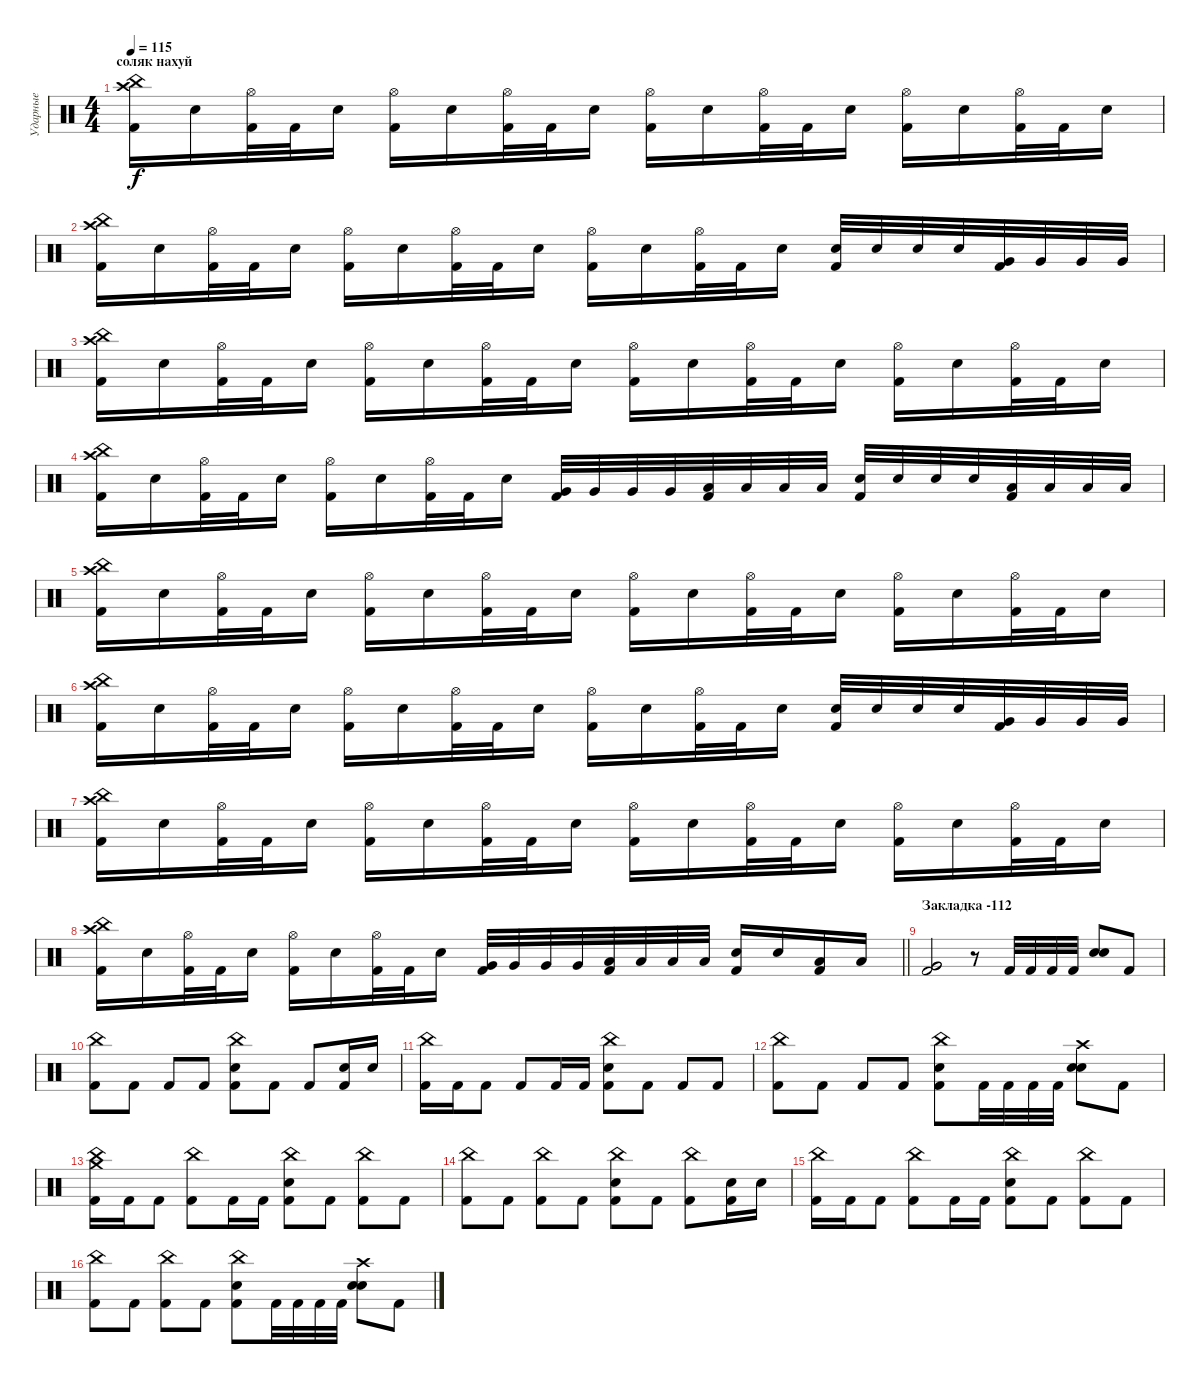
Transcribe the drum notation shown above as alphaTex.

\track ("Ударные" "Ударные") {instrument percussion}
\staff {score}
\articulation defaults
\ts (4 4)
\section ("" "соляк нахуй")
\tempo 115
\clef neutral
\ks c
("China (hit)" "Crash high (hit)" "Kick (hit) 2").16{dy f} "Electric Snare (hit)".16 ("Hi-Hat (open)" "Kick (hit) 2").32 "Kick (hit) 2".32 "Electric Snare (hit)".16 ("Hi-Hat (open)" "Kick (hit) 2").16 "Electric Snare (hit)".16 ("Hi-Hat (open)" "Kick (hit) 2").32 "Kick (hit) 2".32 "Electric Snare (hit)".16 ("Hi-Hat (open)" "Kick (hit) 2").16 "Electric Snare (hit)".16 ("Hi-Hat (open)" "Kick (hit) 2").32 "Kick (hit) 2".32 "Electric Snare (hit)".16 ("Hi-Hat (open)" "Kick (hit) 2").16 "Electric Snare (hit)".16 ("Hi-Hat (open)" "Kick (hit) 2").32 "Kick (hit) 2".32 "Electric Snare (hit)".16 |
("China (hit)" "Crash high (hit)" "Kick (hit) 2").16 "Electric Snare (hit)".16 ("Hi-Hat (open)" "Kick (hit) 2").32 "Kick (hit) 2".32 "Electric Snare (hit)".16 ("Hi-Hat (open)" "Kick (hit) 2").16 "Electric Snare (hit)".16 ("Hi-Hat (open)" "Kick (hit) 2").32 "Kick (hit) 2".32 "Electric Snare (hit)".16 ("Hi-Hat (open)" "Kick (hit) 2").16 "Electric Snare (hit)".16 ("Hi-Hat (open)" "Kick (hit) 2").32 "Kick (hit) 2".32 "Electric Snare (hit)".16 ("Electric Snare (hit)" "Kick (hit) 2").32 "Electric Snare (hit)".32 "Electric Snare (hit)".32 "Electric Snare (hit)".32 ("Very Low Tom (hit)" "Kick (hit) 2").32 "Very Low Tom (hit)".32 "Very Low Tom (hit)".32 "Very Low Tom (hit)".32 |
("China (hit)" "Crash high (hit)" "Kick (hit) 2").16 "Electric Snare (hit)".16 ("Hi-Hat (open)" "Kick (hit) 2").32 "Kick (hit) 2".32 "Electric Snare (hit)".16 ("Hi-Hat (open)" "Kick (hit) 2").16 "Electric Snare (hit)".16 ("Hi-Hat (open)" "Kick (hit) 2").32 "Kick (hit) 2".32 "Electric Snare (hit)".16 ("Hi-Hat (open)" "Kick (hit) 2").16 "Electric Snare (hit)".16 ("Hi-Hat (open)" "Kick (hit) 2").32 "Kick (hit) 2".32 "Electric Snare (hit)".16 ("Hi-Hat (open)" "Kick (hit) 2").16 "Electric Snare (hit)".16 ("Hi-Hat (open)" "Kick (hit) 2").32 "Kick (hit) 2".32 "Electric Snare (hit)".16 |
("China (hit)" "Crash high (hit)" "Kick (hit) 2").16 "Electric Snare (hit)".16 ("Hi-Hat (open)" "Kick (hit) 2").32 "Kick (hit) 2".32 "Electric Snare (hit)".16 ("Hi-Hat (open)" "Kick (hit) 2").16 "Electric Snare (hit)".16 ("Hi-Hat (open)" "Kick (hit) 2").32 "Kick (hit) 2".32 "Electric Snare (hit)".16 ("Very Low Tom (hit)" "Kick (hit) 2").32 "Very Low Tom (hit)".32 "Very Low Tom (hit)".32 "Very Low Tom (hit)".32 ("Low Tom (hit)" "Kick (hit) 2").32 "Low Tom (hit)".32 "Low Tom (hit)".32 "Low Tom (hit)".32 ("Electric Snare (hit)" "Kick (hit) 2").32 "Electric Snare (hit)".32 "Electric Snare (hit)".32 "Electric Snare (hit)".32 ("Low Tom (hit)" "Kick (hit) 2").32 "Low Tom (hit)".32 "Low Tom (hit)".32 "Low Tom (hit)".32 |
("China (hit)" "Crash high (hit)" "Kick (hit) 2").16 "Electric Snare (hit)".16 ("Hi-Hat (open)" "Kick (hit) 2").32 "Kick (hit) 2".32 "Electric Snare (hit)".16 ("Hi-Hat (open)" "Kick (hit) 2").16 "Electric Snare (hit)".16 ("Hi-Hat (open)" "Kick (hit) 2").32 "Kick (hit) 2".32 "Electric Snare (hit)".16 ("Hi-Hat (open)" "Kick (hit) 2").16 "Electric Snare (hit)".16 ("Hi-Hat (open)" "Kick (hit) 2").32 "Kick (hit) 2".32 "Electric Snare (hit)".16 ("Hi-Hat (open)" "Kick (hit) 2").16 "Electric Snare (hit)".16 ("Hi-Hat (open)" "Kick (hit) 2").32 "Kick (hit) 2".32 "Electric Snare (hit)".16 |
("China (hit)" "Crash high (hit)" "Kick (hit) 2").16 "Electric Snare (hit)".16 ("Hi-Hat (open)" "Kick (hit) 2").32 "Kick (hit) 2".32 "Electric Snare (hit)".16 ("Hi-Hat (open)" "Kick (hit) 2").16 "Electric Snare (hit)".16 ("Hi-Hat (open)" "Kick (hit) 2").32 "Kick (hit) 2".32 "Electric Snare (hit)".16 ("Hi-Hat (open)" "Kick (hit) 2").16 "Electric Snare (hit)".16 ("Hi-Hat (open)" "Kick (hit) 2").32 "Kick (hit) 2".32 "Electric Snare (hit)".16 ("Electric Snare (hit)" "Kick (hit) 2").32 "Electric Snare (hit)".32 "Electric Snare (hit)".32 "Electric Snare (hit)".32 ("Very Low Tom (hit)" "Kick (hit) 2").32 "Very Low Tom (hit)".32 "Very Low Tom (hit)".32 "Very Low Tom (hit)".32 |
("China (hit)" "Crash high (hit)" "Kick (hit) 2").16 "Electric Snare (hit)".16 ("Hi-Hat (open)" "Kick (hit) 2").32 "Kick (hit) 2".32 "Electric Snare (hit)".16 ("Hi-Hat (open)" "Kick (hit) 2").16 "Electric Snare (hit)".16 ("Hi-Hat (open)" "Kick (hit) 2").32 "Kick (hit) 2".32 "Electric Snare (hit)".16 ("Hi-Hat (open)" "Kick (hit) 2").16 "Electric Snare (hit)".16 ("Hi-Hat (open)" "Kick (hit) 2").32 "Kick (hit) 2".32 "Electric Snare (hit)".16 ("Hi-Hat (open)" "Kick (hit) 2").16 "Electric Snare (hit)".16 ("Hi-Hat (open)" "Kick (hit) 2").32 "Kick (hit) 2".32 "Electric Snare (hit)".16 |
\barLineRight lightlight
("China (hit)" "Crash high (hit)" "Kick (hit) 2").16 "Electric Snare (hit)".16 ("Hi-Hat (open)" "Kick (hit) 2").32 "Kick (hit) 2".32 "Electric Snare (hit)".16 ("Hi-Hat (open)" "Kick (hit) 2").16 "Electric Snare (hit)".16 ("Hi-Hat (open)" "Kick (hit) 2").32 "Kick (hit) 2".32 "Electric Snare (hit)".16 ("Very Low Tom (hit)" "Kick (hit) 2").32 "Very Low Tom (hit)".32 "Very Low Tom (hit)".32 "Very Low Tom (hit)".32 ("Low Tom (hit)" "Kick (hit) 2").32 "Low Tom (hit)".32 "Low Tom (hit)".32 "Low Tom (hit)".32 ("Electric Snare (hit)" "Kick (hit) 2").16 "Electric Snare (hit)".16 ("Low Tom (hit)" "Kick (hit) 2").16 "Low Tom (hit)".16 |
\section ("" "Закладка -112")
("Very Low Tom (hit)" "Very Low Tom (hit)" "Kick (hit) 2").2 r.8 "Kick (hit) 2".32 "Kick (hit) 2".32 "Kick (hit) 2".32 "Kick (hit) 2".32 ("Electric Snare (hit)" "Electric Snare (hit)").8 "Kick (hit) 2".8 |
("China (hit)" "Kick (hit) 2").8 "Kick (hit) 2".8 "Kick (hit) 2".8 "Kick (hit) 2".8 ("China (hit)" "Electric Snare (hit)" "Kick (hit) 2").8 "Kick (hit) 2".8 "Kick (hit) 2".8 ("Electric Snare (hit)" "Kick (hit) 2").16 "Electric Snare (hit)".16 |
("China (hit)" "Kick (hit) 2").16 "Kick (hit) 2".16 "Kick (hit) 2".8 "Kick (hit) 2".8 "Kick (hit) 2".16 "Kick (hit) 2".16 ("China (hit)" "Electric Snare (hit)" "Kick (hit) 2").8 "Kick (hit) 2".8 "Kick (hit) 2".8 "Kick (hit) 2".8 |
("China (hit)" "Kick (hit) 2").8 "Kick (hit) 2".8 "Kick (hit) 2".8 "Kick (hit) 2".8 ("China (hit)" "Electric Snare (hit)" "Kick (hit) 2").8 "Kick (hit) 2".32 "Kick (hit) 2".32 "Kick (hit) 2".32 "Kick (hit) 2".32 ("Crash high (hit)" "Electric Snare (hit)" "Electric Snare (hit)").8 "Kick (hit) 2".8 |
("China (hit)" "Crash medium (hit)" "Kick (hit) 2").16 "Kick (hit) 2".16 "Kick (hit) 2".8 ("China (hit)" "Kick (hit) 2").8 "Kick (hit) 2".16 "Kick (hit) 2".16 ("China (hit)" "Electric Snare (hit)" "Kick (hit) 2").8 "Kick (hit) 2".8 ("China (hit)" "Kick (hit) 2").8 "Kick (hit) 2".8 |
("China (hit)" "Kick (hit) 2").8 "Kick (hit) 2".8 ("China (hit)" "Kick (hit) 2").8 "Kick (hit) 2".8 ("China (hit)" "Electric Snare (hit)" "Kick (hit) 2").8 "Kick (hit) 2".8 ("China (hit)" "Kick (hit) 2").8 ("Electric Snare (hit)" "Kick (hit) 2").16 "Electric Snare (hit)".16 |
("China (hit)" "Kick (hit) 2").16 "Kick (hit) 2".16 "Kick (hit) 2".8 ("China (hit)" "Kick (hit) 2").8 "Kick (hit) 2".16 "Kick (hit) 2".16 ("China (hit)" "Electric Snare (hit)" "Kick (hit) 2").8 "Kick (hit) 2".8 ("China (hit)" "Kick (hit) 2").8 "Kick (hit) 2".8 |
("China (hit)" "Kick (hit) 2").8 "Kick (hit) 2".8 ("China (hit)" "Kick (hit) 2").8 "Kick (hit) 2".8 ("China (hit)" "Electric Snare (hit)" "Kick (hit) 2").8 "Kick (hit) 2".32 "Kick (hit) 2".32 "Kick (hit) 2".32 "Kick (hit) 2".32 ("Crash high (hit)" "Electric Snare (hit)" "Electric Snare (hit)").8 "Kick (hit) 2".8
